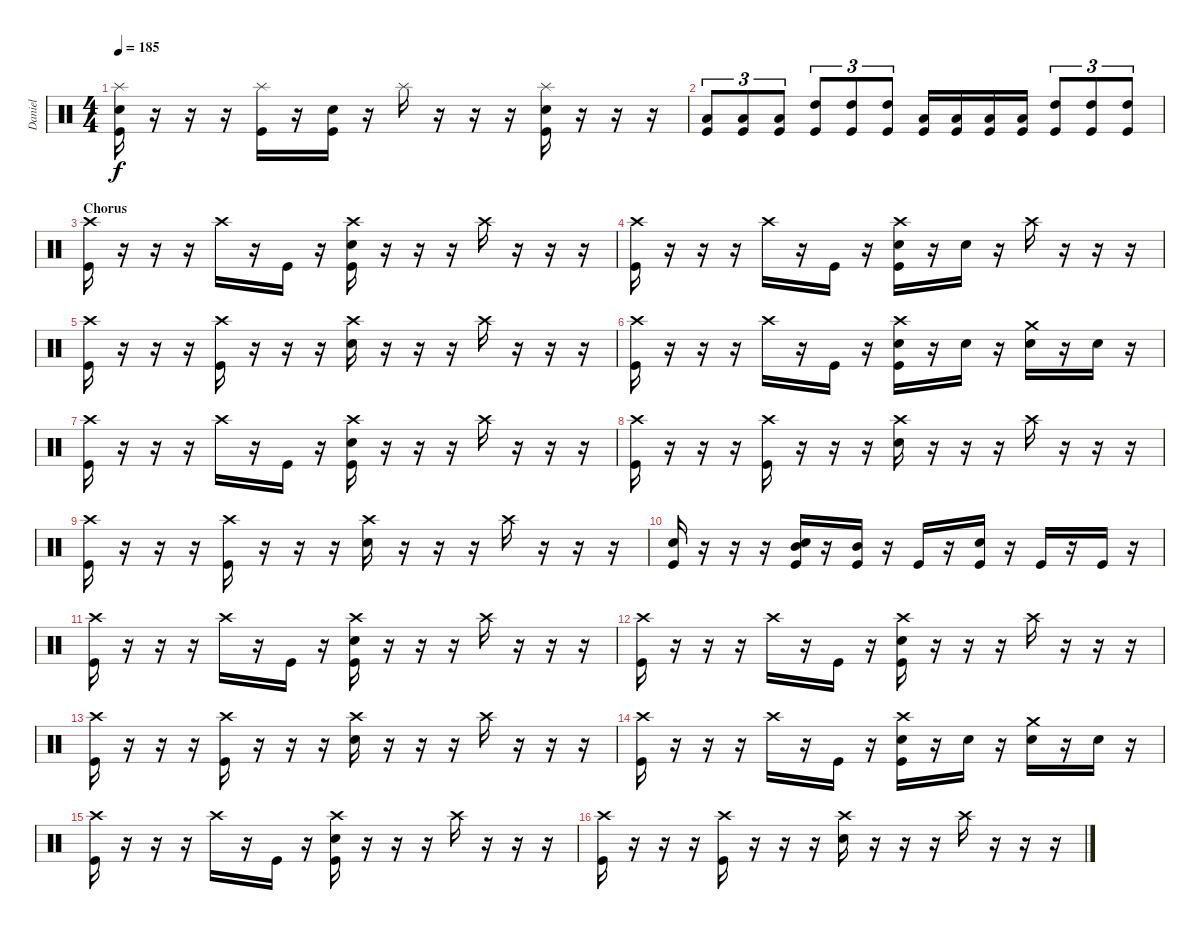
\track ("Daniel" "Daniel") {instrument percussion}
\staff {score}
\articulation defaults
\ts (4 4)
\tempo 185
\clef neutral
\ks c
("Splash (hit)" "Snare (hit) 2" "Kick (hit)").16{dy f} r.16 r.16 r.16 ("Splash (hit)" "Kick (hit)").16 r.16 ("Snare (hit) 2" "Kick (hit)").16 r.16 "Splash (hit)".16 r.16 r.16 r.16 ("Splash (hit)" "Snare (hit) 2" "Kick (hit)").16 r.16 r.16 r.16 |
("Low Tom (hit)" "Kick (hit)").8{tu (3 2)} ("Low Tom (hit)" "Kick (hit)").8{tu (3 2)} ("Low Tom (hit)" "Kick (hit)").8{tu (3 2)} ("High Tom (hit)" "Kick (hit)").8{tu (3 2)} ("High Tom (hit)" "Kick (hit)").8{tu (3 2)} ("High Tom (hit)" "Kick (hit)").8{tu (3 2)} ("Low Tom (hit)" "Kick (hit)").16 ("Low Tom (hit)" "Kick (hit)").16 ("Low Tom (hit)" "Kick (hit)").16 ("Low Tom (hit)" "Kick (hit)").16 ("High Tom (hit)" "Kick (hit)").8{tu (3 2)} ("High Tom (hit)" "Kick (hit)").8{tu (3 2)} ("High Tom (hit)" "Kick (hit)").8{tu (3 2)} |
\section ("" "Chorus")
("Crash high (hit)" "Kick (hit)").16 r.16 r.16 r.16 "Crash high (hit)".16 r.16 "Kick (hit)".16 r.16 ("Crash high (hit)" "Snare (hit) 2" "Kick (hit)").16 r.16 r.16 r.16 "Crash high (hit)".16 r.16 r.16 r.16 |
("Crash high (hit)" "Kick (hit)").16 r.16 r.16 r.16 "Crash high (hit)".16 r.16 "Kick (hit)".16 r.16 ("Crash high (hit)" "Snare (hit) 2" "Kick (hit)").16 r.16 "Snare (hit) 2".16 r.16 "Crash high (hit)".16 r.16 r.16 r.16 |
("Crash high (hit)" "Kick (hit)").16 r.16 r.16 r.16 ("Crash high (hit)" "Kick (hit)").16 r.16 r.16 r.16 ("Crash high (hit)" "Snare (hit) 2").16 r.16 r.16 r.16 "Crash high (hit)".16 r.16 r.16 r.16 |
("Crash high (hit)" "Kick (hit)").16 r.16 r.16 r.16 "Crash high (hit)".16 r.16 "Kick (hit)".16 r.16 ("Crash high (hit)" "Snare (hit) 2" "Kick (hit)").16 r.16 "Snare (hit) 2".16 r.16 ("Crash medium (hit)" "Snare (hit) 2").16 r.16 "Snare (hit) 2".16 r.16 |
("Crash high (hit)" "Kick (hit)").16 r.16 r.16 r.16 "Crash high (hit)".16 r.16 "Kick (hit)".16 r.16 ("Crash high (hit)" "Snare (hit) 2" "Kick (hit)").16 r.16 r.16 r.16 "Crash high (hit)".16 r.16 r.16 r.16 |
("Crash high (hit)" "Kick (hit)").16 r.16 r.16 r.16 ("Crash high (hit)" "Kick (hit)").16 r.16 r.16 r.16 ("Crash high (hit)" "Snare (hit) 2").16 r.16 r.16 r.16 "Crash high (hit)".16 r.16 r.16 r.16 |
("Crash high (hit)" "Kick (hit)").16 r.16 r.16 r.16 ("Crash high (hit)" "Kick (hit)").16 r.16 r.16 r.16 ("Crash high (hit)" "Snare (hit) 2").16 r.16 r.16 r.16 "Crash high (hit)".16 r.16 r.16 r.16 |
("Snare (hit) 2" "Kick (hit)").16 r.16 r.16 r.16 ("Snare (hit) 2" "Mid Tom (hit)" "Kick (hit)").16 r.16 ("Mid Tom (hit)" "Kick (hit)").16 r.16 "Kick (hit)".16 r.16 ("Snare (hit) 2" "Kick (hit)").16 r.16 "Kick (hit)".16 r.16 "Kick (hit)".16 r.16 |
("Crash high (hit)" "Kick (hit)").16 r.16 r.16 r.16 "Crash high (hit)".16 r.16 "Kick (hit)".16 r.16 ("Crash high (hit)" "Snare (hit) 2" "Kick (hit)").16 r.16 r.16 r.16 "Crash high (hit)".16 r.16 r.16 r.16 |
("Crash high (hit)" "Kick (hit)").16 r.16 r.16 r.16 "Crash high (hit)".16 r.16 "Kick (hit)".16 r.16 ("Crash high (hit)" "Snare (hit) 2" "Kick (hit)").16 r.16 r.16 r.16 "Crash high (hit)".16 r.16 r.16 r.16 |
("Crash high (hit)" "Kick (hit)").16 r.16 r.16 r.16 ("Crash high (hit)" "Kick (hit)").16 r.16 r.16 r.16 ("Crash high (hit)" "Snare (hit) 2").16 r.16 r.16 r.16 "Crash high (hit)".16 r.16 r.16 r.16 |
("Crash high (hit)" "Kick (hit)").16 r.16 r.16 r.16 "Crash high (hit)".16 r.16 "Kick (hit)".16 r.16 ("Crash high (hit)" "Snare (hit) 2" "Kick (hit)").16 r.16 "Snare (hit) 2".16 r.16 ("Crash medium (hit)" "Snare (hit) 2").16 r.16 "Snare (hit) 2".16 r.16 |
("Crash high (hit)" "Kick (hit)").16 r.16 r.16 r.16 "Crash high (hit)".16 r.16 "Kick (hit)".16 r.16 ("Crash high (hit)" "Snare (hit) 2" "Kick (hit)").16 r.16 r.16 r.16 "Crash high (hit)".16 r.16 r.16 r.16 |
("Crash high (hit)" "Kick (hit)").16 r.16 r.16 r.16 ("Crash high (hit)" "Kick (hit)").16 r.16 r.16 r.16 ("Crash high (hit)" "Snare (hit) 2").16 r.16 r.16 r.16 "Crash high (hit)".16 r.16 r.16 r.16
